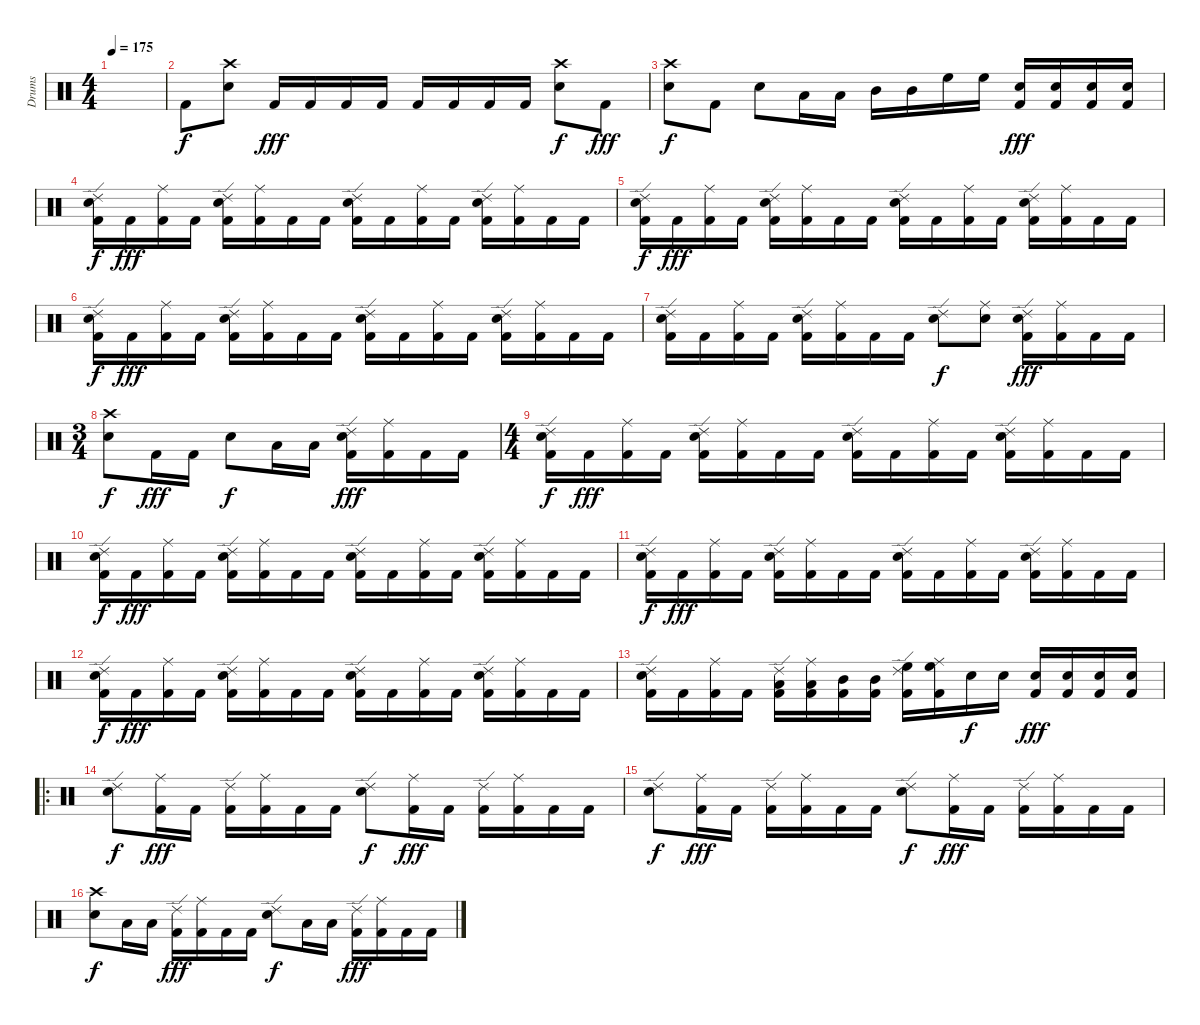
\track ("Drums" "Drums") {instrument percussion}
\staff {score}
\articulation defaults
\ts (4 4)
\tempo 175
\clef neutral
\ks c
|
"Kick (hit) 2".8 ("Crash high (hit)" "Electric Snare (hit)").8{dy f} "Kick (hit) 2".16{dy fff} "Kick (hit) 2".16 "Kick (hit) 2".16 "Kick (hit) 2".16 "Kick (hit) 2".16 "Kick (hit) 2".16 "Kick (hit) 2".16 "Kick (hit) 2".16 ("Crash high (hit)" "Electric Snare (hit)").8{dy f} "Kick (hit) 2".8{dy fff} |
("Crash high (hit)" "Electric Snare (hit)").8{dy f} "Kick (hit) 2".8 "Electric Snare (hit)".8 "Low Tom (hit)".16 "Low Tom (hit)".16 "Mid Tom (hit)".16 "Mid Tom (hit)".16 "High Floor Tom (hit)".16 "High Floor Tom (hit)".16 ("Electric Snare (hit)" "Kick (hit) 2").16{dy fff} ("Electric Snare (hit)" "Kick (hit) 2").16 ("Electric Snare (hit)" "Kick (hit) 2").16 ("Electric Snare (hit)" "Kick (hit) 2").16 |
("Ride (edge) 2" "Electric Snare (hit)" "Kick (hit) 2").16{dy f} "Kick (hit) 2".16{dy fff} ("Ride (middle)" "Kick (hit) 2").16 "Kick (hit) 2".16 ("Ride (edge) 2" "Electric Snare (hit)" "Kick (hit) 2").16 ("Ride (middle)" "Kick (hit) 2").16 "Kick (hit) 2".16 "Kick (hit) 2".16 ("Ride (edge) 2" "Electric Snare (hit)" "Kick (hit) 2").16 "Kick (hit) 2".16 ("Ride (middle)" "Kick (hit) 2").16 "Kick (hit) 2".16 ("Ride (edge) 2" "Electric Snare (hit)" "Kick (hit) 2").16 ("Ride (middle)" "Kick (hit) 2").16 "Kick (hit) 2".16 "Kick (hit) 2".16 |
("Ride (edge) 2" "Electric Snare (hit)" "Kick (hit) 2").16{dy f} "Kick (hit) 2".16{dy fff} ("Ride (middle)" "Kick (hit) 2").16 "Kick (hit) 2".16 ("Ride (edge) 2" "Electric Snare (hit)" "Kick (hit) 2").16 ("Ride (middle)" "Kick (hit) 2").16 "Kick (hit) 2".16 "Kick (hit) 2".16 ("Ride (edge) 2" "Electric Snare (hit)" "Kick (hit) 2").16 "Kick (hit) 2".16 ("Ride (middle)" "Kick (hit) 2").16 "Kick (hit) 2".16 ("Ride (edge) 2" "Electric Snare (hit)" "Kick (hit) 2").16 ("Ride (middle)" "Kick (hit) 2").16 "Kick (hit) 2".16 "Kick (hit) 2".16 |
("Ride (edge) 2" "Electric Snare (hit)" "Kick (hit) 2").16{dy f} "Kick (hit) 2".16{dy fff} ("Ride (middle)" "Kick (hit) 2").16 "Kick (hit) 2".16 ("Ride (edge) 2" "Electric Snare (hit)" "Kick (hit) 2").16 ("Ride (middle)" "Kick (hit) 2").16 "Kick (hit) 2".16 "Kick (hit) 2".16 ("Ride (edge) 2" "Electric Snare (hit)" "Kick (hit) 2").16 "Kick (hit) 2".16 ("Ride (middle)" "Kick (hit) 2").16 "Kick (hit) 2".16 ("Ride (edge) 2" "Electric Snare (hit)" "Kick (hit) 2").16 ("Ride (middle)" "Kick (hit) 2").16 "Kick (hit) 2".16 "Kick (hit) 2".16 |
("Ride (edge) 2" "Electric Snare (hit)" "Kick (hit) 2").16 "Kick (hit) 2".16 ("Ride (middle)" "Kick (hit) 2").16 "Kick (hit) 2".16 ("Ride (edge) 2" "Electric Snare (hit)" "Kick (hit) 2").16 ("Ride (middle)" "Kick (hit) 2").16 "Kick (hit) 2".16 "Kick (hit) 2".16 ("Ride (edge) 2" "Electric Snare (hit)").8{dy f} ("Ride (middle)" "Electric Snare (hit)").8 ("Ride (edge) 2" "Electric Snare (hit)" "Kick (hit) 2").16{dy fff} ("Ride (middle)" "Kick (hit) 2").16 "Kick (hit) 2".16 "Kick (hit) 2".16 |
\ts (3 4)
("Crash high (hit)" "Electric Snare (hit)").8{dy f} "Kick (hit) 2".16{dy fff} "Kick (hit) 2".16 "Electric Snare (hit)".8{dy f} "Low Tom (hit)".16 "Low Tom (hit)".16 ("Ride (edge) 2" "Electric Snare (hit)" "Kick (hit) 2").16{dy fff} ("Ride (middle)" "Kick (hit) 2").16 "Kick (hit) 2".16 "Kick (hit) 2".16 |
\ts (4 4)
("Ride (edge) 2" "Electric Snare (hit)" "Kick (hit) 2").16{dy f} "Kick (hit) 2".16{dy fff} ("Ride (middle)" "Kick (hit) 2").16 "Kick (hit) 2".16 ("Ride (edge) 2" "Electric Snare (hit)" "Kick (hit) 2").16 ("Ride (middle)" "Kick (hit) 2").16 "Kick (hit) 2".16 "Kick (hit) 2".16 ("Ride (edge) 2" "Electric Snare (hit)" "Kick (hit) 2").16 "Kick (hit) 2".16 ("Ride (middle)" "Kick (hit) 2").16 "Kick (hit) 2".16 ("Ride (edge) 2" "Electric Snare (hit)" "Kick (hit) 2").16 ("Ride (middle)" "Kick (hit) 2").16 "Kick (hit) 2".16 "Kick (hit) 2".16 |
("Ride (edge) 2" "Electric Snare (hit)" "Kick (hit) 2").16{dy f} "Kick (hit) 2".16{dy fff} ("Ride (middle)" "Kick (hit) 2").16 "Kick (hit) 2".16 ("Ride (edge) 2" "Electric Snare (hit)" "Kick (hit) 2").16 ("Ride (middle)" "Kick (hit) 2").16 "Kick (hit) 2".16 "Kick (hit) 2".16 ("Ride (edge) 2" "Electric Snare (hit)" "Kick (hit) 2").16 "Kick (hit) 2".16 ("Ride (middle)" "Kick (hit) 2").16 "Kick (hit) 2".16 ("Ride (edge) 2" "Electric Snare (hit)" "Kick (hit) 2").16 ("Ride (middle)" "Kick (hit) 2").16 "Kick (hit) 2".16 "Kick (hit) 2".16 |
("Ride (edge) 2" "Electric Snare (hit)" "Kick (hit) 2").16{dy f} "Kick (hit) 2".16{dy fff} ("Ride (middle)" "Kick (hit) 2").16 "Kick (hit) 2".16 ("Ride (edge) 2" "Electric Snare (hit)" "Kick (hit) 2").16 ("Ride (middle)" "Kick (hit) 2").16 "Kick (hit) 2".16 "Kick (hit) 2".16 ("Ride (edge) 2" "Electric Snare (hit)" "Kick (hit) 2").16 "Kick (hit) 2".16 ("Ride (middle)" "Kick (hit) 2").16 "Kick (hit) 2".16 ("Ride (edge) 2" "Electric Snare (hit)" "Kick (hit) 2").16 ("Ride (middle)" "Kick (hit) 2").16 "Kick (hit) 2".16 "Kick (hit) 2".16 |
("Ride (edge) 2" "Electric Snare (hit)" "Kick (hit) 2").16{dy f} "Kick (hit) 2".16{dy fff} ("Ride (middle)" "Kick (hit) 2").16 "Kick (hit) 2".16 ("Ride (edge) 2" "Electric Snare (hit)" "Kick (hit) 2").16 ("Ride (middle)" "Kick (hit) 2").16 "Kick (hit) 2".16 "Kick (hit) 2".16 ("Ride (edge) 2" "Electric Snare (hit)" "Kick (hit) 2").16 "Kick (hit) 2".16 ("Ride (middle)" "Kick (hit) 2").16 "Kick (hit) 2".16 ("Ride (edge) 2" "Electric Snare (hit)" "Kick (hit) 2").16 ("Ride (middle)" "Kick (hit) 2").16 "Kick (hit) 2".16 "Kick (hit) 2".16 |
("Ride (edge) 2" "Electric Snare (hit)" "Kick (hit) 2").16 "Kick (hit) 2".16 ("Ride (middle)" "Kick (hit) 2").16 "Kick (hit) 2".16 ("Ride (edge) 2" "Low Tom (hit)" "Kick (hit) 2").16 ("Ride (middle)" "Low Tom (hit)" "Kick (hit) 2").16 ("Mid Tom (hit)" "Kick (hit) 2").16 ("Mid Tom (hit)" "Kick (hit) 2").16 ("Ride (edge) 2" "High Floor Tom (hit)" "Kick (hit) 2").16 ("Ride (middle)" "High Floor Tom (hit)" "Kick (hit) 2").16 "Electric Snare (hit)".16{dy f} "Electric Snare (hit)".16 ("Electric Snare (hit)" "Kick (hit) 2").16{dy fff} ("Electric Snare (hit)" "Kick (hit) 2").16 ("Electric Snare (hit)" "Kick (hit) 2").16 ("Electric Snare (hit)" "Kick (hit) 2").16 |
\ro
("Ride (edge) 2" "Electric Snare (hit)").8{dy f} ("Ride (middle)" "Kick (hit) 2").16{dy fff} "Kick (hit) 2".16 ("Ride (edge) 2" "Kick (hit) 2").16 ("Ride (middle)" "Kick (hit) 2").16 "Kick (hit) 2".16 "Kick (hit) 2".16 ("Ride (edge) 2" "Electric Snare (hit)").8{dy f} ("Ride (middle)" "Kick (hit) 2").16{dy fff} "Kick (hit) 2".16 ("Ride (edge) 2" "Kick (hit) 2").16 ("Ride (middle)" "Kick (hit) 2").16 "Kick (hit) 2".16 "Kick (hit) 2".16 |
("Ride (edge) 2" "Electric Snare (hit)").8{dy f} ("Ride (middle)" "Kick (hit) 2").16{dy fff} "Kick (hit) 2".16 ("Ride (edge) 2" "Kick (hit) 2").16 ("Ride (middle)" "Kick (hit) 2").16 "Kick (hit) 2".16 "Kick (hit) 2".16 ("Ride (edge) 2" "Electric Snare (hit)").8{dy f} ("Ride (middle)" "Kick (hit) 2").16{dy fff} "Kick (hit) 2".16 ("Ride (edge) 2" "Kick (hit) 2").16 ("Ride (middle)" "Kick (hit) 2").16 "Kick (hit) 2".16 "Kick (hit) 2".16 |
("Crash high (hit)" "Electric Snare (hit)").8{dy f} "Low Tom (hit)".16 "Low Tom (hit)".16 ("Ride (edge) 2" "Kick (hit) 2").16{dy fff} ("Ride (middle)" "Kick (hit) 2").16 "Kick (hit) 2".16 "Kick (hit) 2".16 ("Ride (edge) 2" "Electric Snare (hit)").8{dy f} "Low Tom (hit)".16 "Low Tom (hit)".16 ("Ride (edge) 2" "Kick (hit) 2").16{dy fff} ("Ride (middle)" "Kick (hit) 2").16 "Kick (hit) 2".16 "Kick (hit) 2".16
